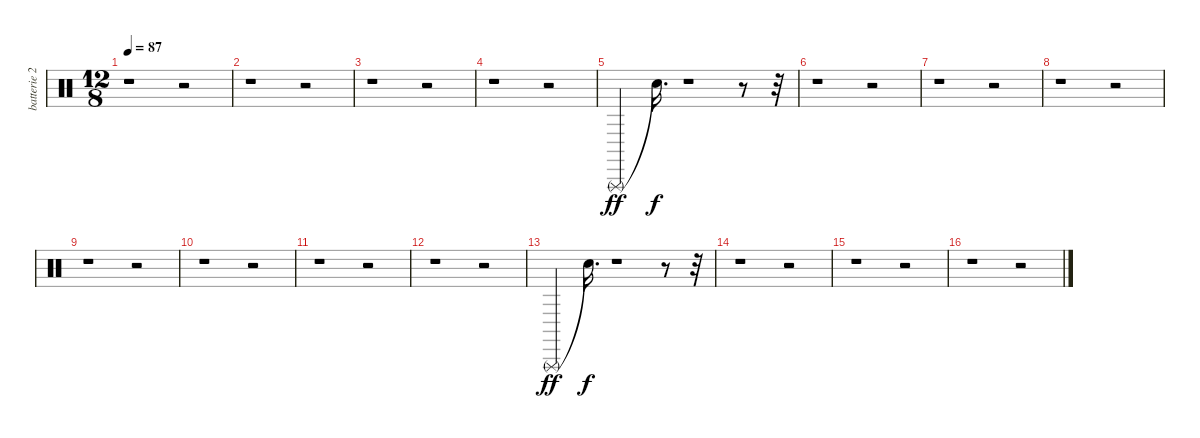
\track ("batterie 2" "batterie 2") {instrument percussion}
\staff {score}
\articulation defaults
\ts (12 8)
\tempo 87
\clef neutral
\ks c
r.1{dy f} r.2 |
r.1 r.2 |
r.1 r.2 |
r.1 r.2 |
"Triangle (rnute)".4{dy ff} "Snare (hit)"{t}.16{d dy f} r.1 r.8 r.32 |
r.1 r.2 |
r.1 r.2 |
r.1 r.2 |
r.1 r.2 |
r.1 r.2 |
r.1 r.2 |
r.1 r.2 |
"Triangle (rnute)".4{dy ff} "Snare (hit)"{t}.16{d dy f} r.1 r.8 r.32 |
r.1 r.2 |
r.1 r.2 |
r.1 r.2
